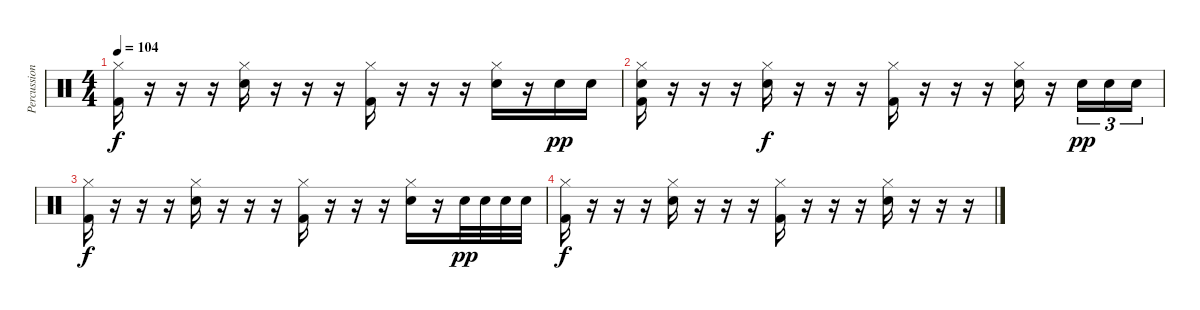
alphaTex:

\track ("Percussion" "Percussion") {instrument percussion}
\staff {score}
\articulation defaults
\ts (4 4)
\tempo 104
\clef neutral
\ks c
("Hi-Hat (closed)" "Kick (hit) 2").16{dy f} r.16 r.16 r.16 ("Hi-Hat (closed)" "Electric Snare (hit)").16 r.16 r.16 r.16 ("Hi-Hat (closed)" "Kick (hit) 2").16 r.16 r.16 r.16 ("Hi-Hat (closed)" "Electric Snare (hit)").16 r.16 "Electric Snare (hit)".16{dy pp} "Electric Snare (hit)".16 |
("Hi-Hat (closed)" "Electric Snare (hit)" "Kick (hit) 2").16 r.16 r.16 r.16 ("Hi-Hat (closed)" "Electric Snare (hit)").16{dy f} r.16 r.16 r.16 ("Hi-Hat (closed)" "Kick (hit) 2").16 r.16 r.16 r.16 ("Hi-Hat (closed)" "Electric Snare (hit)").16 r.16 "Electric Snare (hit)".16{tu (3 2) dy pp} "Electric Snare (hit)".16{tu (3 2)} "Electric Snare (hit)".16{tu (3 2)} |
("Hi-Hat (closed)" "Kick (hit) 2").16{dy f} r.16 r.16 r.16 ("Hi-Hat (closed)" "Electric Snare (hit)").16 r.16 r.16 r.16 ("Hi-Hat (closed)" "Kick (hit) 2").16 r.16 r.16 r.16 ("Hi-Hat (closed)" "Electric Snare (hit)").16 r.16 "Electric Snare (hit)".32{dy pp} "Electric Snare (hit)".32 "Electric Snare (hit)".32 "Electric Snare (hit)".32 |
("Hi-Hat (closed)" "Kick (hit) 2").16{dy f} r.16 r.16 r.16 ("Hi-Hat (closed)" "Electric Snare (hit)").16 r.16 r.16 r.16 ("Hi-Hat (closed)" "Kick (hit) 2").16 r.16 r.16 r.16 ("Hi-Hat (closed)" "Electric Snare (hit)").16 r.16 r.16 r.16
